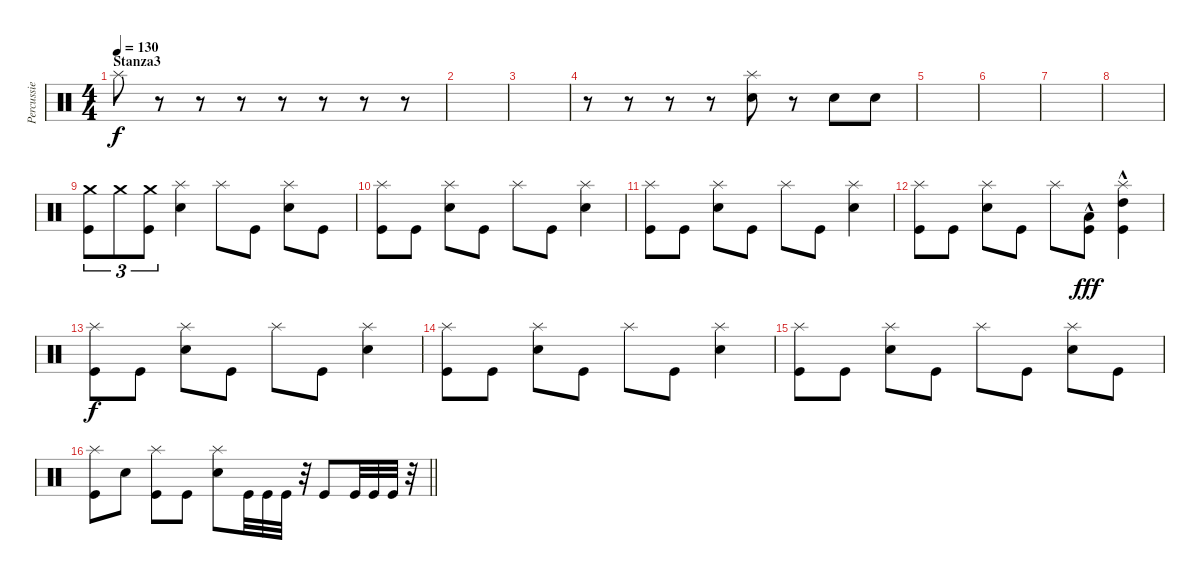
\track ("Percussie" "Percussie") {instrument percussion}
\staff {score}
\articulation defaults
\ts (4 4)
\section ("" "Stanza3")
\tempo 130
\clef neutral
\ks c "Splash (hit)".8{dy f}
r.8 r.8 r.8 r.8 r.8 r.8 r.8 |
|
|
r.8{volume 8} r.8 r.8 r.8 ("Splash (hit)" "Snare (hit) 2").8 r.8 "Snare (hit) 2".8 "Snare (hit) 2".8 |
|
|
|
|
("Crash medium (hit)" "Kick (hit)").8{tu (3 2) volume 16} "Crash medium (hit)".8{tu (3 2)} ("Crash medium (hit)" "Kick (hit)").8{tu (3 2)} ("Splash (hit)" "Snare (hit) 2").4 "Splash (hit)".8 "Kick (hit)".8 ("Splash (hit)" "Snare (hit) 2").8 "Kick (hit)".8 |
("Splash (hit)" "Kick (hit)").8 "Kick (hit)".8 ("Splash (hit)" "Snare (hit) 2").8 "Kick (hit)".8 "Splash (hit)".8 "Kick (hit)".8 ("Splash (hit)" "Snare (hit) 2").4 |
("Splash (hit)" "Kick (hit)").8 "Kick (hit)".8 ("Splash (hit)" "Snare (hit) 2").8 "Kick (hit)".8 "Splash (hit)".8 "Kick (hit)".8 ("Splash (hit)" "Snare (hit) 2").4 |
("Splash (hit)" "Kick (hit)").8 "Kick (hit)".8 ("Splash (hit)" "Snare (hit) 2").8 "Kick (hit)".8 "Splash (hit)".8 ("Low Tom (hit)"{hac} "Kick (hit)"{hac}).8{dy fff} ("High Tom (hit)"{hac} "Splash (hit)" "Kick (hit)"{hac}).4 |
("Splash (hit)" "Kick (hit)").8{dy f} "Kick (hit)".8 ("Splash (hit)" "Snare (hit) 2").8 "Kick (hit)".8 "Splash (hit)".8 "Kick (hit)".8 ("Splash (hit)" "Snare (hit) 2").4 |
("Splash (hit)" "Kick (hit)").8 "Kick (hit)".8 ("Splash (hit)" "Snare (hit) 2").8 "Kick (hit)".8 "Splash (hit)".8 "Kick (hit)".8 ("Splash (hit)" "Snare (hit) 2").4 |
("Splash (hit)" "Kick (hit)").8 "Kick (hit)".8 ("Splash (hit)" "Snare (hit) 2").8 "Kick (hit)".8 "Splash (hit)".8 "Kick (hit)".8 ("Splash (hit)" "Snare (hit) 2").8 "Kick (hit)".8 |
\barLineRight lightlight
("Splash (hit)" "Kick (hit)").8 "Snare (hit) 2".8 ("Splash (hit)" "Kick (hit)").8 "Kick (hit)".8 ("Splash (hit)" "Snare (hit) 2").8 "Kick (hit)".32 "Kick (hit)".32 "Kick (hit)".32 r.32 "Kick (hit)".8 "Kick (hit)".32 "Kick (hit)".32 "Kick (hit)".32 r.32
